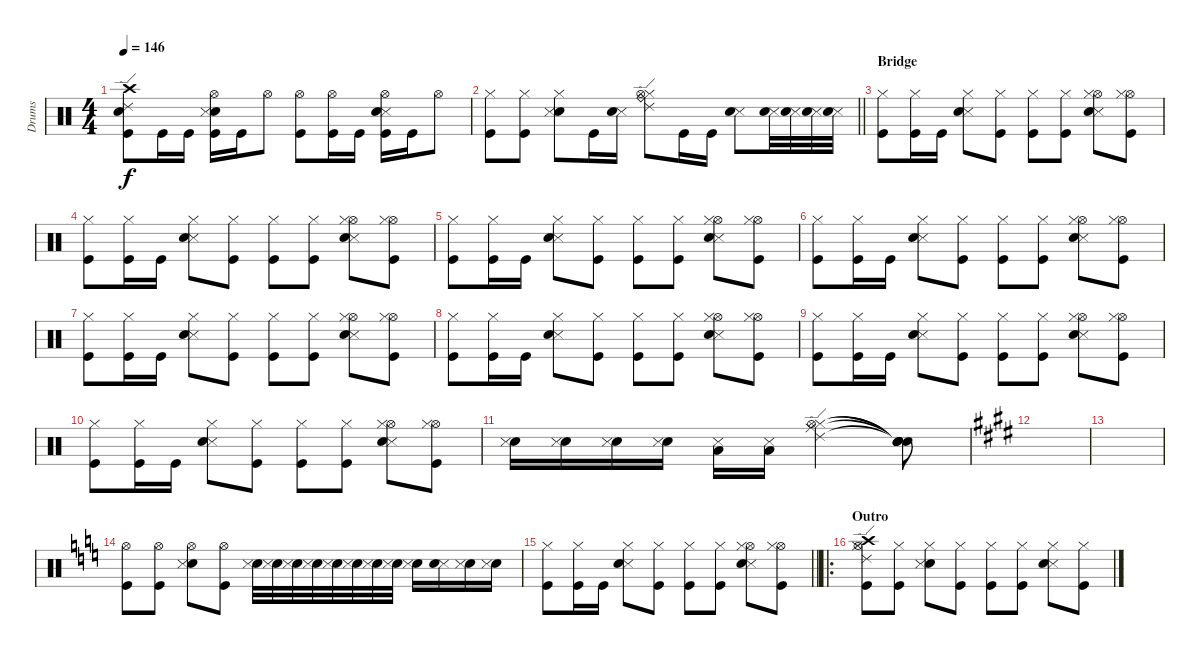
\track ("Drums" "Drums") {instrument percussion}
\staff {score}
\articulation defaults
\ts (4 4)
\tempo 146
\clef neutral
\ks c
("Crash high (hit)" "Ride (edge) 2" "Kick (hit)" "Snare (hit) 2").8{dy f} "Kick (hit)".16 "Kick (hit)".16 ("Electric Snare (hit)" "Snare (side stick) 3" "Kick (hit)" "Hi-Hat (open)").16 "Kick (hit)".16 "Hi-Hat (open)".8 ("Kick (hit)" "Hi-Hat (open)").8 ("Kick (hit)" "Hi-Hat (open)").16 "Kick (hit)".16 ("Snare (side stick) 3" "Electric Snare (hit)" "Kick (hit)" "Hi-Hat (open)").16 "Kick (hit)".16 "Hi-Hat (open)".8 |
\barLineRight lightlight
("Hi-Hat (closed)" "Kick (hit)").8 ("Hi-Hat (closed)" "Kick (hit)").8 ("Hi-Hat (closed)" "Electric Snare (hit)" "Snare (side stick) 3").8 "Kick (hit)".16 ("Snare (side stick) 3" "Electric Snare (hit)").16 ("Hi-Hat (closed)" "Hi-Hat (open)" "Ride (bell)" "Ride (edge) 2").8 "Kick (hit)".16 "Kick (hit)".16 ("Snare (side stick) 3" "Electric Snare (hit)").8 ("Snare (side stick) 3" "Electric Snare (hit)").32 ("Snare (side stick) 3" "Electric Snare (hit)").32 ("Snare (side stick) 3" "Electric Snare (hit)").32 ("Snare (side stick) 3" "Electric Snare (hit)").32 |
\section ("" "Bridge")
("Kick (hit)" "Hi-Hat (closed)").8 ("Kick (hit)" "Hi-Hat (closed)").16 "Kick (hit)".16 ("Snare (side stick) 3" "Electric Snare (hit)" "Hi-Hat (closed)").8 ("Kick (hit)" "Hi-Hat (closed)").8 ("Kick (hit)" "Hi-Hat (closed)").8 ("Kick (hit)" "Hi-Hat (closed)").8 ("Hi-Hat (open)" "Snare (side stick) 3" "Electric Snare (hit)" "Hi-Hat (closed)").8 ("Kick (hit)" "Hi-Hat (open)" "Hi-Hat (closed)").8 |
("Kick (hit)" "Hi-Hat (closed)").8 ("Kick (hit)" "Hi-Hat (closed)").16 "Kick (hit)".16 ("Snare (side stick) 3" "Electric Snare (hit)" "Hi-Hat (closed)").8 ("Kick (hit)" "Hi-Hat (closed)").8 ("Kick (hit)" "Hi-Hat (closed)").8 ("Kick (hit)" "Hi-Hat (closed)").8 ("Hi-Hat (open)" "Snare (side stick) 3" "Electric Snare (hit)" "Hi-Hat (closed)").8 ("Kick (hit)" "Hi-Hat (open)" "Hi-Hat (closed)").8 |
("Kick (hit)" "Hi-Hat (closed)").8 ("Kick (hit)" "Hi-Hat (closed)").16 "Kick (hit)".16 ("Snare (side stick) 3" "Electric Snare (hit)" "Hi-Hat (closed)").8 ("Kick (hit)" "Hi-Hat (closed)").8 ("Kick (hit)" "Hi-Hat (closed)").8 ("Kick (hit)" "Hi-Hat (closed)").8 ("Hi-Hat (open)" "Snare (side stick) 3" "Electric Snare (hit)" "Hi-Hat (closed)").8 ("Kick (hit)" "Hi-Hat (open)" "Hi-Hat (closed)").8 |
("Kick (hit)" "Hi-Hat (closed)").8 ("Kick (hit)" "Hi-Hat (closed)").16 "Kick (hit)".16 ("Snare (side stick) 3" "Electric Snare (hit)" "Hi-Hat (closed)").8 ("Kick (hit)" "Hi-Hat (closed)").8 ("Kick (hit)" "Hi-Hat (closed)").8 ("Kick (hit)" "Hi-Hat (closed)").8 ("Hi-Hat (open)" "Snare (side stick) 3" "Electric Snare (hit)" "Hi-Hat (closed)").8 ("Kick (hit)" "Hi-Hat (open)" "Hi-Hat (closed)").8 |
("Kick (hit)" "Hi-Hat (closed)").8 ("Kick (hit)" "Hi-Hat (closed)").16 "Kick (hit)".16 ("Snare (side stick) 3" "Electric Snare (hit)" "Hi-Hat (closed)").8 ("Kick (hit)" "Hi-Hat (closed)").8 ("Kick (hit)" "Hi-Hat (closed)").8 ("Kick (hit)" "Hi-Hat (closed)").8 ("Hi-Hat (open)" "Snare (side stick) 3" "Electric Snare (hit)" "Hi-Hat (closed)").8 ("Kick (hit)" "Hi-Hat (open)" "Hi-Hat (closed)").8 |
("Kick (hit)" "Hi-Hat (closed)").8 ("Kick (hit)" "Hi-Hat (closed)").16 "Kick (hit)".16 ("Snare (side stick) 3" "Electric Snare (hit)" "Hi-Hat (closed)").8 ("Kick (hit)" "Hi-Hat (closed)").8 ("Kick (hit)" "Hi-Hat (closed)").8 ("Kick (hit)" "Hi-Hat (closed)").8 ("Hi-Hat (open)" "Snare (side stick) 3" "Electric Snare (hit)" "Hi-Hat (closed)").8 ("Kick (hit)" "Hi-Hat (open)" "Hi-Hat (closed)").8 |
("Kick (hit)" "Hi-Hat (closed)").8 ("Kick (hit)" "Hi-Hat (closed)").16 "Kick (hit)".16 ("Snare (side stick) 3" "Electric Snare (hit)" "Hi-Hat (closed)").8 ("Kick (hit)" "Hi-Hat (closed)").8 ("Kick (hit)" "Hi-Hat (closed)").8 ("Kick (hit)" "Hi-Hat (closed)").8 ("Hi-Hat (open)" "Snare (side stick) 3" "Electric Snare (hit)" "Hi-Hat (closed)").8 ("Kick (hit)" "Hi-Hat (open)" "Hi-Hat (closed)").8 |
("Kick (hit)" "Hi-Hat (closed)").8 ("Kick (hit)" "Hi-Hat (closed)").16 "Kick (hit)".16 ("Snare (side stick) 3" "Electric Snare (hit)" "Hi-Hat (closed)").8 ("Kick (hit)" "Hi-Hat (closed)").8 ("Kick (hit)" "Hi-Hat (closed)").8 ("Kick (hit)" "Hi-Hat (closed)").8 ("Hi-Hat (open)" "Snare (side stick) 3" "Electric Snare (hit)" "Hi-Hat (closed)").8 ("Kick (hit)" "Hi-Hat (open)" "Hi-Hat (closed)").8 |
("Electric Snare (hit)" "Snare (side stick) 3").16 ("Electric Snare (hit)" "Snare (side stick) 3").16 ("Electric Snare (hit)" "Snare (side stick) 3").16 ("Electric Snare (hit)" "Snare (side stick) 3").16 ("Snare (side stick) 3" "Low Floor Tom (hit)").16 ("Snare (side stick) 3" "Low Floor Tom (hit)").16 ("Hi-Hat (closed)" "Hi-Hat (open)" "Ride (middle)" "Ride (edge) 2").2 ("Snare (hit)"{t} "Snare (hit)"{t} "Snare (hit)"{t} "Snare (hit)"{t}).8 |
\ks c#minor
|
|
\ks c
("Kick (hit)" "Hi-Hat (open)").8 ("Kick (hit)" "Hi-Hat (open)").8 ("Electric Snare (hit)" "Snare (side stick) 3" "Hi-Hat (open)").8 ("Kick (hit)" "Hi-Hat (open)").8 ("Electric Snare (hit)" "Snare (side stick) 3").32 ("Electric Snare (hit)" "Snare (side stick) 3").32 ("Electric Snare (hit)" "Snare (side stick) 3").32 ("Electric Snare (hit)" "Snare (side stick) 3").32 ("Electric Snare (hit)" "Snare (side stick) 3").32 ("Electric Snare (hit)" "Snare (side stick) 3").32 ("Electric Snare (hit)" "Snare (side stick) 3").32 ("Electric Snare (hit)" "Snare (side stick) 3").32 ("Electric Snare (hit)" "Snare (side stick) 3").16 ("Snare (side stick) 3" "Electric Snare (hit)").16 ("Electric Snare (hit)" "Snare (side stick) 3").16 ("Electric Snare (hit)" "Snare (side stick) 3").16 |
\barLineRight lightlight
("Kick (hit)" "Hi-Hat (closed)").8 ("Kick (hit)" "Hi-Hat (closed)").16 "Kick (hit)".16 ("Snare (side stick) 3" "Electric Snare (hit)" "Hi-Hat (closed)").8 ("Kick (hit)" "Hi-Hat (closed)").8 ("Kick (hit)" "Hi-Hat (closed)").8 ("Kick (hit)" "Hi-Hat (closed)").8 ("Hi-Hat (open)" "Snare (side stick) 3" "Electric Snare (hit)" "Hi-Hat (closed)").8 ("Kick (hit)" "Hi-Hat (open)" "Hi-Hat (closed)").8 |
\ro
\section ("" "Outro")
("Kick (hit)" "Hi-Hat (closed)" "Hi-Hat (open)" "Crash high (hit)" "Ride (edge) 2").8 ("Hi-Hat (closed)" "Kick (hit)").8 ("Hi-Hat (closed)" "Electric Snare (hit)" "Snare (side stick) 3").8 ("Hi-Hat (closed)" "Kick (hit)").8 ("Hi-Hat (closed)" "Kick (hit)").8 ("Kick (hit)" "Hi-Hat (closed)").8 ("Hi-Hat (closed)" "Snare (side stick) 3" "Electric Snare (hit)").8 ("Hi-Hat (closed)" "Kick (hit)").8
